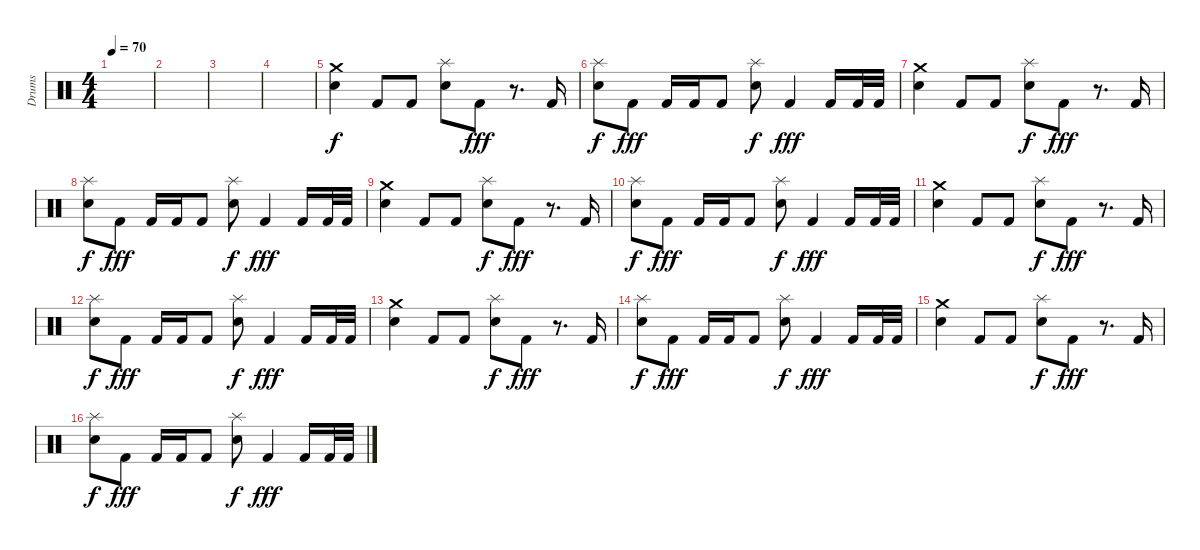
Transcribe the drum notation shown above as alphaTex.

\track ("Drums" "Drums") {instrument percussion}
\staff {score}
\articulation defaults
\ts (4 4)
\tempo 70
\clef neutral
\ks c
|
|
|
|
("Electric Snare (hit)" "Crash medium (hit)").4 "Kick (hit) 2".8 "Kick (hit) 2".8 ("Electric Snare (hit)" "Splash (hit)").8{dy f} "Kick (hit) 2".8{dy fff} r.8{d} "Kick (hit) 2".16 |
("Splash (hit)" "Electric Snare (hit)").8{dy f} "Kick (hit) 2".8{dy fff} "Kick (hit) 2".16 "Kick (hit) 2".16 "Kick (hit) 2".8 ("Splash (hit)" "Electric Snare (hit)").8{dy f} "Kick (hit) 2".4{dy fff} "Kick (hit) 2".16 "Kick (hit) 2".32 "Kick (hit) 2".32 |
("Electric Snare (hit)" "Crash medium (hit)").4 "Kick (hit) 2".8 "Kick (hit) 2".8 ("Electric Snare (hit)" "Splash (hit)").8{dy f} "Kick (hit) 2".8{dy fff} r.8{d} "Kick (hit) 2".16 |
("Splash (hit)" "Electric Snare (hit)").8{dy f} "Kick (hit) 2".8{dy fff} "Kick (hit) 2".16 "Kick (hit) 2".16 "Kick (hit) 2".8 ("Splash (hit)" "Electric Snare (hit)").8{dy f} "Kick (hit) 2".4{dy fff} "Kick (hit) 2".16 "Kick (hit) 2".32 "Kick (hit) 2".32 |
("Electric Snare (hit)" "Crash medium (hit)").4 "Kick (hit) 2".8 "Kick (hit) 2".8 ("Electric Snare (hit)" "Splash (hit)").8{dy f} "Kick (hit) 2".8{dy fff} r.8{d} "Kick (hit) 2".16 |
("Splash (hit)" "Electric Snare (hit)").8{dy f} "Kick (hit) 2".8{dy fff} "Kick (hit) 2".16 "Kick (hit) 2".16 "Kick (hit) 2".8 ("Splash (hit)" "Electric Snare (hit)").8{dy f} "Kick (hit) 2".4{dy fff} "Kick (hit) 2".16 "Kick (hit) 2".32 "Kick (hit) 2".32 |
("Electric Snare (hit)" "Crash medium (hit)").4 "Kick (hit) 2".8 "Kick (hit) 2".8 ("Electric Snare (hit)" "Splash (hit)").8{dy f} "Kick (hit) 2".8{dy fff} r.8{d} "Kick (hit) 2".16 |
("Splash (hit)" "Electric Snare (hit)").8{dy f} "Kick (hit) 2".8{dy fff} "Kick (hit) 2".16 "Kick (hit) 2".16 "Kick (hit) 2".8 ("Splash (hit)" "Electric Snare (hit)").8{dy f} "Kick (hit) 2".4{dy fff} "Kick (hit) 2".16 "Kick (hit) 2".32 "Kick (hit) 2".32 |
("Electric Snare (hit)" "Crash medium (hit)").4 "Kick (hit) 2".8 "Kick (hit) 2".8 ("Electric Snare (hit)" "Splash (hit)").8{dy f} "Kick (hit) 2".8{dy fff} r.8{d} "Kick (hit) 2".16 |
("Splash (hit)" "Electric Snare (hit)").8{dy f} "Kick (hit) 2".8{dy fff} "Kick (hit) 2".16 "Kick (hit) 2".16 "Kick (hit) 2".8 ("Splash (hit)" "Electric Snare (hit)").8{dy f} "Kick (hit) 2".4{dy fff} "Kick (hit) 2".16 "Kick (hit) 2".32 "Kick (hit) 2".32 |
("Electric Snare (hit)" "Crash medium (hit)").4 "Kick (hit) 2".8 "Kick (hit) 2".8 ("Electric Snare (hit)" "Splash (hit)").8{dy f} "Kick (hit) 2".8{dy fff} r.8{d} "Kick (hit) 2".16 |
("Splash (hit)" "Electric Snare (hit)").8{dy f} "Kick (hit) 2".8{dy fff} "Kick (hit) 2".16 "Kick (hit) 2".16 "Kick (hit) 2".8 ("Splash (hit)" "Electric Snare (hit)").8{dy f} "Kick (hit) 2".4{dy fff} "Kick (hit) 2".16 "Kick (hit) 2".32 "Kick (hit) 2".32
